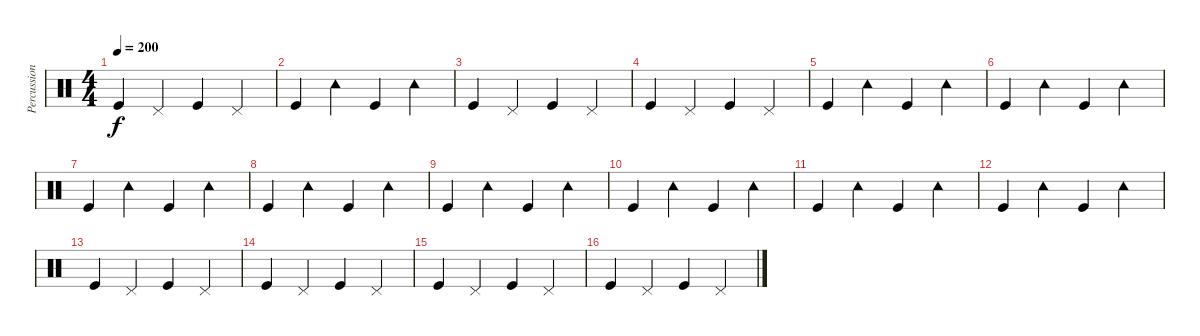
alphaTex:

\track ("Percussions" "Percussion") {instrument percussion}
\staff {score}
\articulation defaults
\ts (4 4)
\tempo 200
\clef neutral
\ks c "Kick (hit)".4{dy f} "Pedal Hi-Hat (hit)".4 "Kick (hit)".4 "Pedal Hi-Hat (hit)".4
|
"Kick (hit)".4 "Tambourine (hit)".4 "Kick (hit)".4 "Tambourine (hit)".4 |
"Kick (hit)".4 "Pedal Hi-Hat (hit)".4 "Kick (hit)".4 "Pedal Hi-Hat (hit)".4 |
"Kick (hit)".4 "Pedal Hi-Hat (hit)".4 "Kick (hit)".4 "Pedal Hi-Hat (hit)".4 |
"Kick (hit)".4 "Tambourine (hit)".4 "Kick (hit)".4 "Tambourine (hit)".4 |
"Kick (hit)".4 "Tambourine (hit)".4 "Kick (hit)".4 "Tambourine (hit)".4 |
"Kick (hit)".4 "Tambourine (hit)".4 "Kick (hit)".4 "Tambourine (hit)".4 |
"Kick (hit)".4 "Tambourine (hit)".4 "Kick (hit)".4 "Tambourine (hit)".4 |
"Kick (hit)".4 "Tambourine (hit)".4 "Kick (hit)".4 "Tambourine (hit)".4 |
"Kick (hit)".4 "Tambourine (hit)".4 "Kick (hit)".4 "Tambourine (hit)".4 |
"Kick (hit)".4 "Tambourine (hit)".4 "Kick (hit)".4 "Tambourine (hit)".4 |
"Kick (hit)".4 "Tambourine (hit)".4 "Kick (hit)".4 "Tambourine (hit)".4 |
"Kick (hit)".4 "Pedal Hi-Hat (hit)".4 "Kick (hit)".4 "Pedal Hi-Hat (hit)".4 |
"Kick (hit)".4 "Pedal Hi-Hat (hit)".4 "Kick (hit)".4 "Pedal Hi-Hat (hit)".4 |
"Kick (hit)".4 "Pedal Hi-Hat (hit)".4 "Kick (hit)".4 "Pedal Hi-Hat (hit)".4 |
"Kick (hit)".4 "Pedal Hi-Hat (hit)".4 "Kick (hit)".4 "Pedal Hi-Hat (hit)".4
